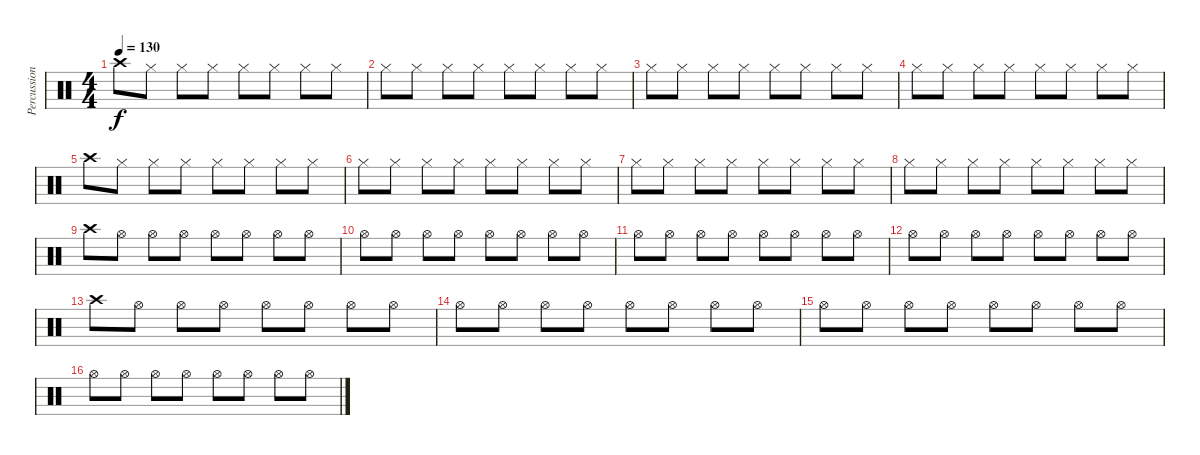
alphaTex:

\track ("Percussion" "Percussion") {instrument percussion}
\staff {score}
\articulation defaults
\ts (4 4)
\tempo 130
\clef neutral
\ks c "Crash high (hit)".8{dy f} "Hi-Hat (closed)".8 "Hi-Hat (closed)".8 "Hi-Hat (closed)".8 "Hi-Hat (closed)".8 "Hi-Hat (closed)".8 "Hi-Hat (closed)".8 "Hi-Hat (closed)".8
|
"Hi-Hat (closed)".8 "Hi-Hat (closed)".8 "Hi-Hat (closed)".8 "Hi-Hat (closed)".8 "Hi-Hat (closed)".8 "Hi-Hat (closed)".8 "Hi-Hat (closed)".8 "Hi-Hat (closed)".8 |
"Hi-Hat (closed)".8 "Hi-Hat (closed)".8 "Hi-Hat (closed)".8 "Hi-Hat (closed)".8 "Hi-Hat (closed)".8 "Hi-Hat (closed)".8 "Hi-Hat (closed)".8 "Hi-Hat (closed)".8 |
"Hi-Hat (closed)".8 "Hi-Hat (closed)".8 "Hi-Hat (closed)".8 "Hi-Hat (closed)".8 "Hi-Hat (closed)".8 "Hi-Hat (closed)".8 "Hi-Hat (closed)".8 "Hi-Hat (closed)".8 |
"Crash high (hit)".8 "Hi-Hat (closed)".8 "Hi-Hat (closed)".8 "Hi-Hat (closed)".8 "Hi-Hat (closed)".8 "Hi-Hat (closed)".8 "Hi-Hat (closed)".8 "Hi-Hat (closed)".8 |
"Hi-Hat (closed)".8 "Hi-Hat (closed)".8 "Hi-Hat (closed)".8 "Hi-Hat (closed)".8 "Hi-Hat (closed)".8 "Hi-Hat (closed)".8 "Hi-Hat (closed)".8 "Hi-Hat (closed)".8 |
"Hi-Hat (closed)".8 "Hi-Hat (closed)".8 "Hi-Hat (closed)".8 "Hi-Hat (closed)".8 "Hi-Hat (closed)".8 "Hi-Hat (closed)".8 "Hi-Hat (closed)".8 "Hi-Hat (closed)".8 |
"Hi-Hat (closed)".8 "Hi-Hat (closed)".8 "Hi-Hat (closed)".8 "Hi-Hat (closed)".8 "Hi-Hat (closed)".8 "Hi-Hat (closed)".8 "Hi-Hat (closed)".8 "Hi-Hat (closed)".8 |
"Crash high (hit)".8 "Hi-Hat (open)".8 "Hi-Hat (open)".8 "Hi-Hat (open)".8 "Hi-Hat (open)".8 "Hi-Hat (open)".8 "Hi-Hat (open)".8 "Hi-Hat (open)".8 |
"Hi-Hat (open)".8 "Hi-Hat (open)".8 "Hi-Hat (open)".8 "Hi-Hat (open)".8 "Hi-Hat (open)".8 "Hi-Hat (open)".8 "Hi-Hat (open)".8 "Hi-Hat (open)".8 |
"Hi-Hat (open)".8 "Hi-Hat (open)".8 "Hi-Hat (open)".8 "Hi-Hat (open)".8 "Hi-Hat (open)".8 "Hi-Hat (open)".8 "Hi-Hat (open)".8 "Hi-Hat (open)".8 |
"Hi-Hat (open)".8 "Hi-Hat (open)".8 "Hi-Hat (open)".8 "Hi-Hat (open)".8 "Hi-Hat (open)".8 "Hi-Hat (open)".8 "Hi-Hat (open)".8 "Hi-Hat (open)".8 |
"Crash high (hit)".8 "Hi-Hat (open)".8 "Hi-Hat (open)".8 "Hi-Hat (open)".8 "Hi-Hat (open)".8 "Hi-Hat (open)".8 "Hi-Hat (open)".8 "Hi-Hat (open)".8 |
"Hi-Hat (open)".8 "Hi-Hat (open)".8 "Hi-Hat (open)".8 "Hi-Hat (open)".8 "Hi-Hat (open)".8 "Hi-Hat (open)".8 "Hi-Hat (open)".8 "Hi-Hat (open)".8 |
"Hi-Hat (open)".8 "Hi-Hat (open)".8 "Hi-Hat (open)".8 "Hi-Hat (open)".8 "Hi-Hat (open)".8 "Hi-Hat (open)".8 "Hi-Hat (open)".8 "Hi-Hat (open)".8 |
"Hi-Hat (open)".8 "Hi-Hat (open)".8 "Hi-Hat (open)".8 "Hi-Hat (open)".8 "Hi-Hat (open)".8 "Hi-Hat (open)".8 "Hi-Hat (open)".8 "Hi-Hat (open)".8
